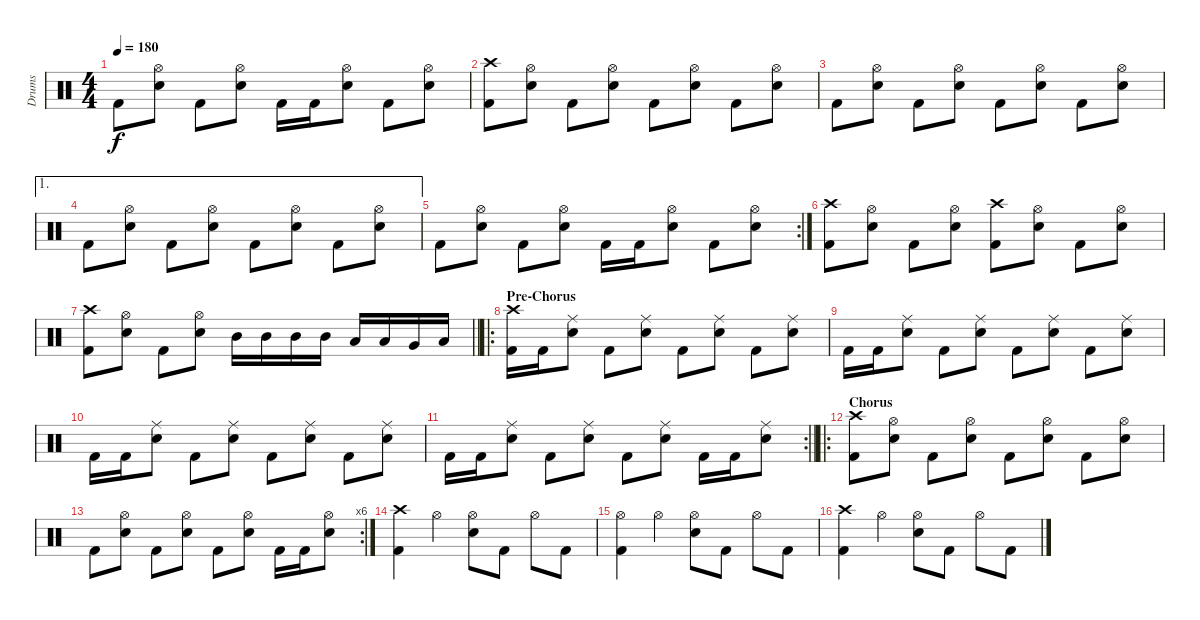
\track ("Drums" "Drums") {instrument percussion}
\staff {score}
\articulation defaults
\ts (4 4)
\tempo 180
\clef neutral
\ks c "Kick (hit) 2".8{dy f}
("Electric Snare (hit)" "Hi-Hat (open)").8 "Kick (hit) 2".8 ("Electric Snare (hit)" "Hi-Hat (open)").8 "Kick (hit) 2".16 "Kick (hit) 2".16 ("Electric Snare (hit)" "Hi-Hat (open)").8 "Kick (hit) 2".8 ("Electric Snare (hit)" "Hi-Hat (open)").8 |
("Kick (hit) 2" "Crash high (hit)").8 ("Electric Snare (hit)" "Hi-Hat (open)").8 "Kick (hit) 2".8 ("Electric Snare (hit)" "Hi-Hat (open)").8 "Kick (hit) 2".8 ("Electric Snare (hit)" "Hi-Hat (open)").8 "Kick (hit) 2".8 ("Electric Snare (hit)" "Hi-Hat (open)").8 |
"Kick (hit) 2".8 ("Electric Snare (hit)" "Hi-Hat (open)").8 "Kick (hit) 2".8 ("Electric Snare (hit)" "Hi-Hat (open)").8 "Kick (hit) 2".8 ("Electric Snare (hit)" "Hi-Hat (open)").8 "Kick (hit) 2".8 ("Electric Snare (hit)" "Hi-Hat (open)").8 |
\ae 1 "Kick (hit) 2".8
("Electric Snare (hit)" "Hi-Hat (open)").8 "Kick (hit) 2".8 ("Electric Snare (hit)" "Hi-Hat (open)").8 "Kick (hit) 2".8 ("Electric Snare (hit)" "Hi-Hat (open)").8 "Kick (hit) 2".8 ("Electric Snare (hit)" "Hi-Hat (open)").8 |
\rc 2 "Kick (hit) 2".8
("Electric Snare (hit)" "Hi-Hat (open)").8 "Kick (hit) 2".8 ("Electric Snare (hit)" "Hi-Hat (open)").8 "Kick (hit) 2".16 "Kick (hit) 2".16 ("Electric Snare (hit)" "Hi-Hat (open)").8 "Kick (hit) 2".8 ("Electric Snare (hit)" "Hi-Hat (open)").8 |
("Kick (hit) 2" "Crash high (hit)").8 ("Electric Snare (hit)" "Hi-Hat (open)").8 "Kick (hit) 2".8 ("Electric Snare (hit)" "Hi-Hat (open)").8 ("Kick (hit) 2" "Crash high (hit)").8 ("Electric Snare (hit)" "Hi-Hat (open)").8 "Kick (hit) 2".8 ("Electric Snare (hit)" "Hi-Hat (open)").8 |
\barLineRight lightlight
("Kick (hit) 2" "Crash high (hit)").8 ("Electric Snare (hit)" "Hi-Hat (open)").8 "Kick (hit) 2".8 ("Electric Snare (hit)" "Hi-Hat (open)").8 "Mid Tom (hit)".16 "Mid Tom (hit)".16 "Mid Tom (hit)".16 "Mid Tom (hit)".16 "Low Tom (hit)".16 "Low Tom (hit)".16 "Very Low Tom (hit)".16 "Low Floor Tom (hit)".16 |
\ro
\section ("" "Pre-Chorus")
("Kick (hit) 2" "Crash high (hit)").16 "Kick (hit) 2".16 ("Electric Snare (hit)" "Ride (middle)").8 "Kick (hit) 2".8 ("Electric Snare (hit)" "Ride (middle)").8 "Kick (hit) 2".8 ("Electric Snare (hit)" "Ride (middle)").8 "Kick (hit) 2".8 ("Electric Snare (hit)" "Ride (middle)").8 |
"Kick (hit) 2".16 "Kick (hit) 2".16 ("Electric Snare (hit)" "Ride (middle)").8 "Kick (hit) 2".8 ("Electric Snare (hit)" "Ride (middle)").8 "Kick (hit) 2".8 ("Electric Snare (hit)" "Ride (middle)").8 "Kick (hit) 2".8 ("Electric Snare (hit)" "Ride (middle)").8 |
"Kick (hit) 2".16 "Kick (hit) 2".16 ("Electric Snare (hit)" "Ride (middle)").8 "Kick (hit) 2".8 ("Electric Snare (hit)" "Ride (middle)").8 "Kick (hit) 2".8 ("Electric Snare (hit)" "Ride (middle)").8 "Kick (hit) 2".8 ("Electric Snare (hit)" "Ride (middle)").8 |
\rc 2
\barLineRight lightlight "Kick (hit) 2".16 "Kick (hit) 2".16
("Electric Snare (hit)" "Ride (middle)").8 "Kick (hit) 2".8 ("Electric Snare (hit)" "Ride (middle)").8 "Kick (hit) 2".8 ("Electric Snare (hit)" "Ride (middle)").8 "Kick (hit) 2".16 "Kick (hit) 2".16 ("Electric Snare (hit)" "Ride (middle)").8 |
\ro
\section ("" "Chorus")
("Kick (hit) 2" "Crash high (hit)").8 ("Electric Snare (hit)" "Hi-Hat (open)").8 "Kick (hit) 2".8 ("Electric Snare (hit)" "Hi-Hat (open)").8 "Kick (hit) 2".8 ("Electric Snare (hit)" "Hi-Hat (open)").8 "Kick (hit) 2".8 ("Electric Snare (hit)" "Hi-Hat (open)").8 |
\rc 6 "Kick (hit) 2".8
("Electric Snare (hit)" "Hi-Hat (open)").8 "Kick (hit) 2".8 ("Electric Snare (hit)" "Hi-Hat (open)").8 "Kick (hit) 2".8 ("Electric Snare (hit)" "Hi-Hat (open)").8 "Kick (hit) 2".16 "Kick (hit) 2".16 ("Electric Snare (hit)" "Hi-Hat (open)").8 |
("Kick (hit) 2" "Crash high (hit)").4 "Hi-Hat (open)".4 ("Electric Snare (hit)" "Hi-Hat (open)").8 "Kick (hit) 2".8 "Hi-Hat (open)".8 "Kick (hit) 2".8 |
("Kick (hit) 2" "Hi-Hat (open)").4 "Hi-Hat (open)".4 ("Electric Snare (hit)" "Hi-Hat (open)").8 "Kick (hit) 2".8 "Hi-Hat (open)".8 "Kick (hit) 2".8 |
("Kick (hit) 2" "Crash high (hit)").4 "Hi-Hat (open)".4 ("Electric Snare (hit)" "Hi-Hat (open)").8 "Kick (hit) 2".8 "Hi-Hat (open)".8 "Kick (hit) 2".8
